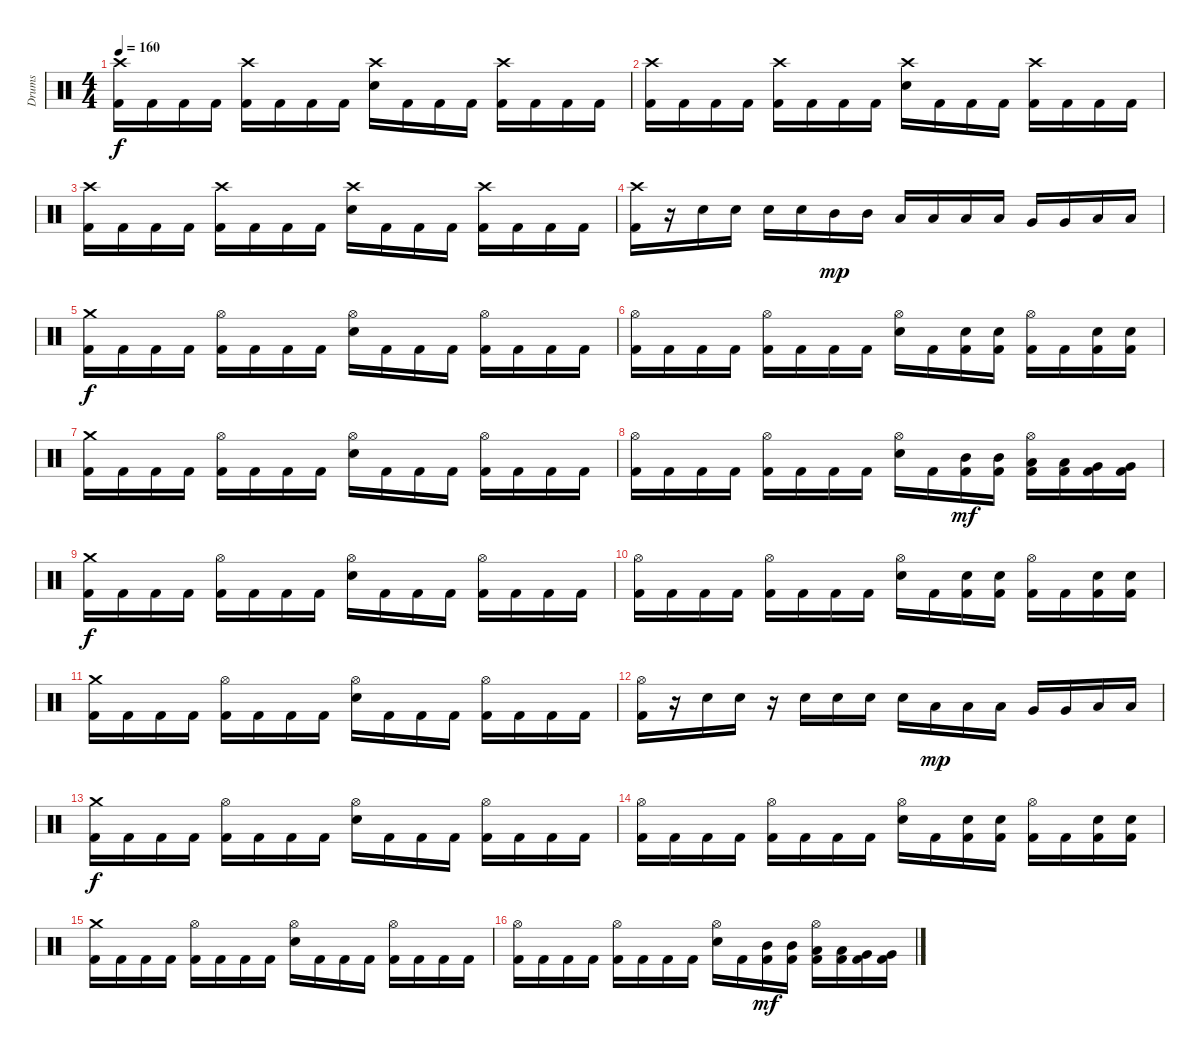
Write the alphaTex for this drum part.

\track ("Drums" "Drums") {instrument percussion}
\staff {score}
\articulation defaults
\ts (4 4)
\tempo 160
\clef neutral
\ks c
("Crash high (hit)" "Kick (hit) 2").16{dy f} "Kick (hit) 2".16 "Kick (hit) 2".16 "Kick (hit) 2".16 ("Crash high (hit)" "Kick (hit) 2").16 "Kick (hit) 2".16 "Kick (hit) 2".16 "Kick (hit) 2".16 ("Crash high (hit)" "Snare (hit) 2").16 "Kick (hit) 2".16 "Kick (hit) 2".16 "Kick (hit) 2".16 ("Crash high (hit)" "Kick (hit) 2").16 "Kick (hit) 2".16 "Kick (hit) 2".16 "Kick (hit) 2".16 |
("Crash high (hit)" "Kick (hit) 2").16 "Kick (hit) 2".16 "Kick (hit) 2".16 "Kick (hit) 2".16 ("Crash high (hit)" "Kick (hit) 2").16 "Kick (hit) 2".16 "Kick (hit) 2".16 "Kick (hit) 2".16 ("Crash high (hit)" "Snare (hit) 2").16 "Kick (hit) 2".16 "Kick (hit) 2".16 "Kick (hit) 2".16 ("Crash high (hit)" "Kick (hit) 2").16 "Kick (hit) 2".16 "Kick (hit) 2".16 "Kick (hit) 2".16 |
("Crash high (hit)" "Kick (hit) 2").16 "Kick (hit) 2".16 "Kick (hit) 2".16 "Kick (hit) 2".16 ("Crash high (hit)" "Kick (hit) 2").16 "Kick (hit) 2".16 "Kick (hit) 2".16 "Kick (hit) 2".16 ("Crash high (hit)" "Snare (hit) 2").16 "Kick (hit) 2".16 "Kick (hit) 2".16 "Kick (hit) 2".16 ("Crash high (hit)" "Kick (hit) 2").16 "Kick (hit) 2".16 "Kick (hit) 2".16 "Kick (hit) 2".16 |
("Crash high (hit)" "Kick (hit) 2").16 r.16 "Snare (hit) 2".16 "Snare (hit) 2".16 "Snare (hit) 2".16 "Snare (hit) 2".16 "Mid Tom (hit)".16{dy mp} "Mid Tom (hit)".16 "Low Tom (hit)".16 "Low Tom (hit)".16 "Low Tom (hit)".16 "Low Tom (hit)".16 "Very Low Tom (hit)".16 "Very Low Tom (hit)".16 "Low Floor Tom (hit)".16 "Low Floor Tom (hit)".16 |
("Crash medium (hit)" "Kick (hit) 2").16{dy f} "Kick (hit) 2".16 "Kick (hit) 2".16 "Kick (hit) 2".16 ("Hi-Hat (open)" "Kick (hit) 2").16 "Kick (hit) 2".16 "Kick (hit) 2".16 "Kick (hit) 2".16 ("Hi-Hat (open)" "Snare (hit) 2").16 "Kick (hit) 2".16 "Kick (hit) 2".16 "Kick (hit) 2".16 ("Hi-Hat (open)" "Kick (hit) 2").16 "Kick (hit) 2".16 "Kick (hit) 2".16 "Kick (hit) 2".16 |
("Hi-Hat (open)" "Kick (hit) 2").16 "Kick (hit) 2".16 "Kick (hit) 2".16 "Kick (hit) 2".16 ("Hi-Hat (open)" "Kick (hit) 2").16 "Kick (hit) 2".16 "Kick (hit) 2".16 "Kick (hit) 2".16 ("Hi-Hat (open)" "Snare (hit) 2").16 "Kick (hit) 2".16 ("Snare (hit) 2" "Kick (hit) 2").16 ("Snare (hit) 2" "Kick (hit) 2").16 ("Hi-Hat (open)" "Kick (hit) 2").16 "Kick (hit) 2".16 ("Snare (hit) 2" "Kick (hit) 2").16 ("Snare (hit) 2" "Kick (hit) 2").16 |
("Crash medium (hit)" "Kick (hit) 2").16 "Kick (hit) 2".16 "Kick (hit) 2".16 "Kick (hit) 2".16 ("Hi-Hat (open)" "Kick (hit) 2").16 "Kick (hit) 2".16 "Kick (hit) 2".16 "Kick (hit) 2".16 ("Hi-Hat (open)" "Snare (hit) 2").16 "Kick (hit) 2".16 "Kick (hit) 2".16 "Kick (hit) 2".16 ("Hi-Hat (open)" "Kick (hit) 2").16 "Kick (hit) 2".16 "Kick (hit) 2".16 "Kick (hit) 2".16 |
("Hi-Hat (open)" "Kick (hit) 2").16 "Kick (hit) 2".16 "Kick (hit) 2".16 "Kick (hit) 2".16 ("Hi-Hat (open)" "Kick (hit) 2").16 "Kick (hit) 2".16 "Kick (hit) 2".16 "Kick (hit) 2".16 ("Hi-Hat (open)" "Snare (hit) 2").16 "Kick (hit) 2".16 ("Mid Tom (hit)" "Kick (hit) 2").16{dy mf} ("Mid Tom (hit)" "Kick (hit) 2").16 ("Hi-Hat (open)" "Low Tom (hit)" "Kick (hit) 2").16 ("Low Tom (hit)" "Kick (hit) 2").16 ("Very Low Tom (hit)" "Kick (hit) 2").16 ("Very Low Tom (hit)" "Kick (hit) 2").16 |
("Crash medium (hit)" "Kick (hit) 2").16{dy f} "Kick (hit) 2".16 "Kick (hit) 2".16 "Kick (hit) 2".16 ("Hi-Hat (open)" "Kick (hit) 2").16 "Kick (hit) 2".16 "Kick (hit) 2".16 "Kick (hit) 2".16 ("Hi-Hat (open)" "Snare (hit) 2").16 "Kick (hit) 2".16 "Kick (hit) 2".16 "Kick (hit) 2".16 ("Hi-Hat (open)" "Kick (hit) 2").16 "Kick (hit) 2".16 "Kick (hit) 2".16 "Kick (hit) 2".16 |
("Hi-Hat (open)" "Kick (hit) 2").16 "Kick (hit) 2".16 "Kick (hit) 2".16 "Kick (hit) 2".16 ("Hi-Hat (open)" "Kick (hit) 2").16 "Kick (hit) 2".16 "Kick (hit) 2".16 "Kick (hit) 2".16 ("Hi-Hat (open)" "Snare (hit) 2").16 "Kick (hit) 2".16 ("Snare (hit) 2" "Kick (hit) 2").16 ("Snare (hit) 2" "Kick (hit) 2").16 ("Hi-Hat (open)" "Kick (hit) 2").16 "Kick (hit) 2".16 ("Snare (hit) 2" "Kick (hit) 2").16 ("Snare (hit) 2" "Kick (hit) 2").16 |
("Crash medium (hit)" "Kick (hit) 2").16 "Kick (hit) 2".16 "Kick (hit) 2".16 "Kick (hit) 2".16 ("Hi-Hat (open)" "Kick (hit) 2").16 "Kick (hit) 2".16 "Kick (hit) 2".16 "Kick (hit) 2".16 ("Hi-Hat (open)" "Snare (hit) 2").16 "Kick (hit) 2".16 "Kick (hit) 2".16 "Kick (hit) 2".16 ("Hi-Hat (open)" "Kick (hit) 2").16 "Kick (hit) 2".16 "Kick (hit) 2".16 "Kick (hit) 2".16 |
("Hi-Hat (open)" "Kick (hit) 2").16 r.16 "Snare (hit) 2".16 "Snare (hit) 2".16 r.16 "Snare (hit) 2".16 "Snare (hit) 2".16 "Snare (hit) 2".16 "Snare (hit) 2".16 "Low Tom (hit)".16{dy mp} "Low Tom (hit)".16 "Low Tom (hit)".16 "Very Low Tom (hit)".16 "Very Low Tom (hit)".16 "Low Floor Tom (hit)".16 "Low Floor Tom (hit)".16 |
("Crash medium (hit)" "Kick (hit) 2").16{dy f} "Kick (hit) 2".16 "Kick (hit) 2".16 "Kick (hit) 2".16 ("Hi-Hat (open)" "Kick (hit) 2").16 "Kick (hit) 2".16 "Kick (hit) 2".16 "Kick (hit) 2".16 ("Hi-Hat (open)" "Snare (hit) 2").16 "Kick (hit) 2".16 "Kick (hit) 2".16 "Kick (hit) 2".16 ("Hi-Hat (open)" "Kick (hit) 2").16 "Kick (hit) 2".16 "Kick (hit) 2".16 "Kick (hit) 2".16 |
("Hi-Hat (open)" "Kick (hit) 2").16 "Kick (hit) 2".16 "Kick (hit) 2".16 "Kick (hit) 2".16 ("Hi-Hat (open)" "Kick (hit) 2").16 "Kick (hit) 2".16 "Kick (hit) 2".16 "Kick (hit) 2".16 ("Hi-Hat (open)" "Snare (hit) 2").16 "Kick (hit) 2".16 ("Snare (hit) 2" "Kick (hit) 2").16 ("Snare (hit) 2" "Kick (hit) 2").16 ("Hi-Hat (open)" "Kick (hit) 2").16 "Kick (hit) 2".16 ("Snare (hit) 2" "Kick (hit) 2").16 ("Snare (hit) 2" "Kick (hit) 2").16 |
("Crash medium (hit)" "Kick (hit) 2").16 "Kick (hit) 2".16 "Kick (hit) 2".16 "Kick (hit) 2".16 ("Hi-Hat (open)" "Kick (hit) 2").16 "Kick (hit) 2".16 "Kick (hit) 2".16 "Kick (hit) 2".16 ("Hi-Hat (open)" "Snare (hit) 2").16 "Kick (hit) 2".16 "Kick (hit) 2".16 "Kick (hit) 2".16 ("Hi-Hat (open)" "Kick (hit) 2").16 "Kick (hit) 2".16 "Kick (hit) 2".16 "Kick (hit) 2".16 |
("Hi-Hat (open)" "Kick (hit) 2").16 "Kick (hit) 2".16 "Kick (hit) 2".16 "Kick (hit) 2".16 ("Hi-Hat (open)" "Kick (hit) 2").16 "Kick (hit) 2".16 "Kick (hit) 2".16 "Kick (hit) 2".16 ("Hi-Hat (open)" "Snare (hit) 2").16 "Kick (hit) 2".16 ("Mid Tom (hit)" "Kick (hit) 2").16{dy mf} ("Mid Tom (hit)" "Kick (hit) 2").16 ("Hi-Hat (open)" "Low Tom (hit)" "Kick (hit) 2").16 ("Low Tom (hit)" "Kick (hit) 2").16 ("Very Low Tom (hit)" "Kick (hit) 2").16 ("Very Low Tom (hit)" "Kick (hit) 2").16
